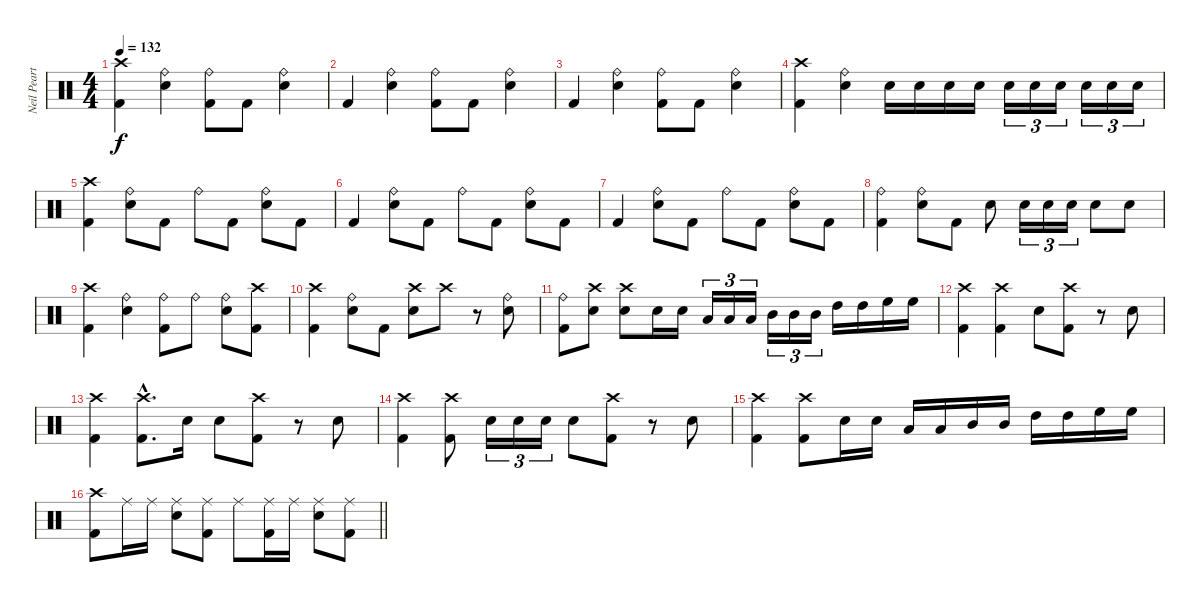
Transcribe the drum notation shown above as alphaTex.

\track ("Neil Peart" "Neil Peart") {instrument percussion}
\staff {score}
\articulation defaults
\ts (4 4)
\tempo 132
\clef neutral
\ks c
("Crash high (hit)" "Kick (hit) 2").4{dy f} ("Ride (bell)" "Electric Snare (hit)").4 ("Ride (bell)" "Kick (hit) 2").8 "Kick (hit) 2".8 ("Ride (bell)" "Electric Snare (hit)").4 |
"Kick (hit) 2".4 ("Ride (bell)" "Electric Snare (hit)").4 ("Ride (bell)" "Kick (hit) 2").8 "Kick (hit) 2".8 ("Ride (bell)" "Electric Snare (hit)").4 |
"Kick (hit) 2".4 ("Ride (bell)" "Electric Snare (hit)").4 ("Ride (bell)" "Kick (hit) 2").8 "Kick (hit) 2".8 ("Ride (bell)" "Electric Snare (hit)").4 |
("Crash high (hit)" "Kick (hit) 2").4 ("Ride (bell)" "Electric Snare (hit)").4 "Electric Snare (hit)".16 "Electric Snare (hit)".16 "Electric Snare (hit)".16 "Electric Snare (hit)".16 "Electric Snare (hit)".16{tu (3 2)} "Electric Snare (hit)".16{tu (3 2)} "Electric Snare (hit)".16{tu (3 2)} "Electric Snare (hit)".16{tu (3 2)} "Electric Snare (hit)".16{tu (3 2)} "Electric Snare (hit)".16{tu (3 2)} |
("Crash high (hit)" "Kick (hit) 2").4 ("Ride (bell)" "Electric Snare (hit)").8 "Kick (hit) 2".8 "Ride (bell)".8 "Kick (hit) 2".8 ("Ride (bell)" "Electric Snare (hit)").8 "Kick (hit) 2".8 |
"Kick (hit) 2".4 ("Ride (bell)" "Electric Snare (hit)").8 "Kick (hit) 2".8 "Ride (bell)".8 "Kick (hit) 2".8 ("Ride (bell)" "Electric Snare (hit)").8 "Kick (hit) 2".8 |
"Kick (hit) 2".4 ("Ride (bell)" "Electric Snare (hit)").8 "Kick (hit) 2".8 "Ride (bell)".8 "Kick (hit) 2".8 ("Ride (bell)" "Electric Snare (hit)").8 "Kick (hit) 2".8 |
("Ride (bell)" "Kick (hit) 2").4 ("Ride (bell)" "Electric Snare (hit)").8 "Kick (hit) 2".8 "Electric Snare (hit)".8 "Electric Snare (hit)".16{tu (3 2)} "Electric Snare (hit)".16{tu (3 2)} "Electric Snare (hit)".16{tu (3 2)} "Electric Snare (hit)".8 "Electric Snare (hit)".8 |
("Crash high (hit)" "Kick (hit) 2").4 ("Ride (bell)" "Electric Snare (hit)").4 ("Ride (bell)" "Kick (hit) 2").8 "Ride (bell)".8 ("Ride (bell)" "Electric Snare (hit)").8 ("Crash high (hit)" "Kick (hit) 2").8 |
("Crash high (hit)" "Kick (hit) 2").4 ("Ride (bell)" "Electric Snare (hit)").8 "Kick (hit) 2".8 ("Crash high (hit)" "Electric Snare (hit)").8 "Crash high (hit)".8 r.8 ("Ride (bell)" "Electric Snare (hit)").8 |
("Ride (bell)" "Kick (hit) 2").8 ("Crash high (hit)" "Electric Snare (hit)").8 ("Crash high (hit)" "Electric Snare (hit)").8 "Electric Snare (hit)".16 "Electric Snare (hit)".16 "Low Tom (hit)".16{tu (3 2)} "Low Tom (hit)".16{tu (3 2)} "Low Tom (hit)".16{tu (3 2)} "Mid Tom (hit)".16{tu (3 2)} "Mid Tom (hit)".16{tu (3 2)} "Mid Tom (hit)".16{tu (3 2)} "High Tom (hit)".16 "High Tom (hit)".16 "High Floor Tom (hit)".16 "High Floor Tom (hit)".16 |
("Crash high (hit)" "Kick (hit) 2").4 ("Crash high (hit)" "Kick (hit) 2").4 "Electric Snare (hit)".8 ("Crash high (hit)" "Kick (hit) 2").8 r.8 "Electric Snare (hit)".8 |
("Crash high (hit)" "Kick (hit) 2").4 ("Crash high (hit)"{hac} "Kick (hit) 2"{hac}).8{d} "Electric Snare (hit)".16 "Electric Snare (hit)".8 ("Crash high (hit)" "Kick (hit) 2").8 r.8 "Electric Snare (hit)".8 |
("Crash high (hit)" "Kick (hit) 2").4 ("Crash high (hit)" "Kick (hit) 2").8 "Electric Snare (hit)".16{tu (3 2)} "Electric Snare (hit)".16{tu (3 2)} "Electric Snare (hit)".16{tu (3 2)} "Electric Snare (hit)".8 ("Crash high (hit)" "Kick (hit) 2").8 r.8 "Electric Snare (hit)".8 |
("Crash high (hit)" "Kick (hit) 2").4 ("Crash high (hit)" "Kick (hit) 2").8 "Electric Snare (hit)".16 "Electric Snare (hit)".16 "Low Tom (hit)".16 "Low Tom (hit)".16 "Mid Tom (hit)".16 "Mid Tom (hit)".16 "High Tom (hit)".16 "High Tom (hit)".16 "High Floor Tom (hit)".16 "High Floor Tom (hit)".16 |
\barLineRight lightlight
("Crash high (hit)" "Kick (hit) 2").8 "Ride (middle)".16 "Ride (middle)".16 ("Ride (middle)" "Electric Snare (hit)").8 ("Ride (middle)" "Kick (hit) 2").8 "Ride (middle)".8 ("Ride (middle)" "Kick (hit) 2").16 "Ride (middle)".16 ("Ride (middle)" "Electric Snare (hit)").8 ("Ride (middle)" "Kick (hit) 2").8
